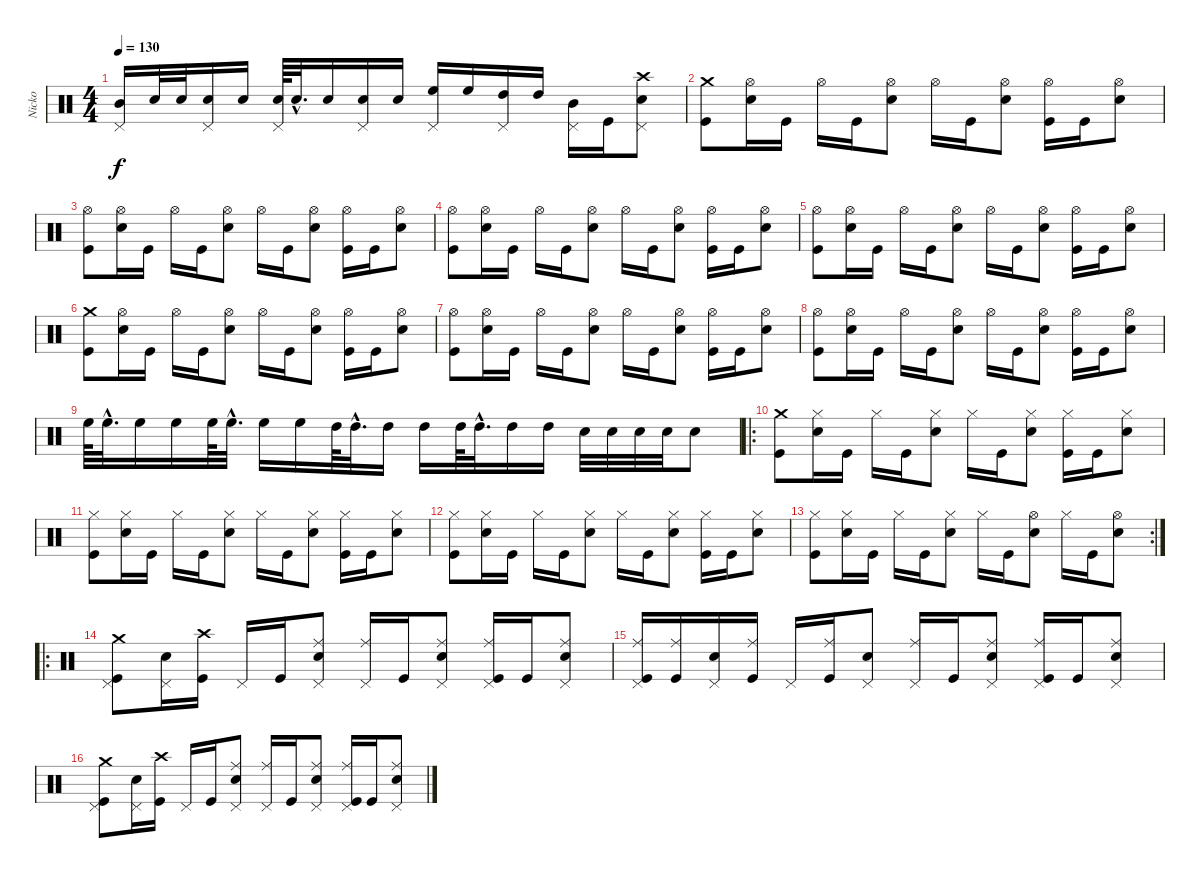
\track ("Nicko" "Nicko") {instrument percussion}
\staff {score}
\articulation defaults
\ts (4 4)
\tempo 130
\clef neutral
\ks c
("Mid Tom (hit)" "Pedal Hi-Hat (hit)").16{dy f} "Snare (hit) 2".32 "Snare (hit) 2".32 ("Snare (hit) 2" "Pedal Hi-Hat (hit)").16 "Snare (hit) 2".16 ("Snare (hit) 2" "Pedal Hi-Hat (hit)").64 "Snare (hit) 2"{hac}.32{d} "Snare (hit) 2".16 ("Snare (hit) 2" "Pedal Hi-Hat (hit)").16 "Snare (hit) 2".16 ("High Floor Tom (hit)" "Pedal Hi-Hat (hit)").16 "High Floor Tom (hit)".16 ("High Tom (hit)" "Pedal Hi-Hat (hit)").16 "High Tom (hit)".16 ("Mid Tom (hit)" "Pedal Hi-Hat (hit)").16 "Kick (hit)".16 ("Crash high (hit)" "Snare (hit) 2" "Pedal Hi-Hat (hit)").8 |
("Crash medium (hit)" "Kick (hit)").8 ("Hi-Hat (open)" "Snare (hit) 2").16 "Kick (hit)".16 "Hi-Hat (open)".16 "Kick (hit)".16 ("Hi-Hat (open)" "Snare (hit) 2").8 "Hi-Hat (open)".16 "Kick (hit)".16 ("Hi-Hat (open)" "Snare (hit) 2").8 ("Hi-Hat (open)" "Kick (hit)").16 "Kick (hit)".16 ("Hi-Hat (open)" "Snare (hit) 2").8 |
("Hi-Hat (open)" "Kick (hit)").8 ("Hi-Hat (open)" "Snare (hit) 2").16 "Kick (hit)".16 "Hi-Hat (open)".16 "Kick (hit)".16 ("Hi-Hat (open)" "Snare (hit) 2").8 "Hi-Hat (open)".16 "Kick (hit)".16 ("Hi-Hat (open)" "Snare (hit) 2").8 ("Hi-Hat (open)" "Kick (hit)").16 "Kick (hit)".16 ("Hi-Hat (open)" "Snare (hit) 2").8 |
("Hi-Hat (open)" "Kick (hit)").8 ("Hi-Hat (open)" "Snare (hit) 2").16 "Kick (hit)".16 "Hi-Hat (open)".16 "Kick (hit)".16 ("Hi-Hat (open)" "Snare (hit) 2").8 "Hi-Hat (open)".16 "Kick (hit)".16 ("Hi-Hat (open)" "Snare (hit) 2").8 ("Hi-Hat (open)" "Kick (hit)").16 "Kick (hit)".16 ("Hi-Hat (open)" "Snare (hit) 2").8 |
("Hi-Hat (open)" "Kick (hit)").8 ("Hi-Hat (open)" "Snare (hit) 2").16 "Kick (hit)".16 "Hi-Hat (open)".16 "Kick (hit)".16 ("Hi-Hat (open)" "Snare (hit) 2").8 "Hi-Hat (open)".16 "Kick (hit)".16 ("Hi-Hat (open)" "Snare (hit) 2").8 ("Hi-Hat (open)" "Kick (hit)").16 "Kick (hit)".16 ("Hi-Hat (open)" "Snare (hit) 2").8 |
("Crash medium (hit)" "Kick (hit)").8 ("Hi-Hat (open)" "Snare (hit) 2").16 "Kick (hit)".16 "Hi-Hat (open)".16 "Kick (hit)".16 ("Hi-Hat (open)" "Snare (hit) 2").8 "Hi-Hat (open)".16 "Kick (hit)".16 ("Hi-Hat (open)" "Snare (hit) 2").8 ("Hi-Hat (open)" "Kick (hit)").16 "Kick (hit)".16 ("Hi-Hat (open)" "Snare (hit) 2").8 |
("Hi-Hat (open)" "Kick (hit)").8 ("Hi-Hat (open)" "Snare (hit) 2").16 "Kick (hit)".16 "Hi-Hat (open)".16 "Kick (hit)".16 ("Hi-Hat (open)" "Snare (hit) 2").8 "Hi-Hat (open)".16 "Kick (hit)".16 ("Hi-Hat (open)" "Snare (hit) 2").8 ("Hi-Hat (open)" "Kick (hit)").16 "Kick (hit)".16 ("Hi-Hat (open)" "Snare (hit) 2").8 |
("Hi-Hat (open)" "Kick (hit)").8 ("Hi-Hat (open)" "Snare (hit) 2").16 "Kick (hit)".16 "Hi-Hat (open)".16 "Kick (hit)".16 ("Hi-Hat (open)" "Snare (hit) 2").8 "Hi-Hat (open)".16 "Kick (hit)".16 ("Hi-Hat (open)" "Snare (hit) 2").8 ("Hi-Hat (open)" "Kick (hit)").16 "Kick (hit)".16 ("Hi-Hat (open)" "Snare (hit) 2").8 |
"High Floor Tom (hit)".64 "High Floor Tom (hit)"{hac}.32{d} "High Floor Tom (hit)".16 "High Floor Tom (hit)".16 "High Floor Tom (hit)".64 "High Floor Tom (hit)"{hac}.32{d} "High Floor Tom (hit)".16 "High Floor Tom (hit)".16 "High Tom (hit)".64 "High Tom (hit)"{hac}.32{d} "High Tom (hit)".16 "High Tom (hit)".16 "High Tom (hit)".64 "High Tom (hit)"{hac}.32{d} "High Tom (hit)".16 "High Tom (hit)".16 "Snare (hit) 2".32 "Snare (hit) 2".32 "Snare (hit) 2".32 "Snare (hit) 2".32 "Snare (hit) 2".8 |
\ro
("Crash medium (hit)" "Kick (hit)").8 ("Hi-Hat (closed)" "Snare (hit) 2").16 "Kick (hit)".16 "Hi-Hat (closed)".16 "Kick (hit)".16 ("Hi-Hat (closed)" "Snare (hit) 2").8 "Hi-Hat (closed)".16 "Kick (hit)".16 ("Hi-Hat (closed)" "Snare (hit) 2").8 ("Hi-Hat (closed)" "Kick (hit)").16 "Kick (hit)".16 ("Hi-Hat (closed)" "Snare (hit) 2").8 |
("Hi-Hat (closed)" "Kick (hit)").8 ("Hi-Hat (closed)" "Snare (hit) 2").16 "Kick (hit)".16 "Hi-Hat (closed)".16 "Kick (hit)".16 ("Hi-Hat (closed)" "Snare (hit) 2").8 "Hi-Hat (closed)".16 "Kick (hit)".16 ("Hi-Hat (closed)" "Snare (hit) 2").8 ("Hi-Hat (closed)" "Kick (hit)").16 "Kick (hit)".16 ("Hi-Hat (closed)" "Snare (hit) 2").8 |
("Hi-Hat (closed)" "Kick (hit)").8 ("Hi-Hat (closed)" "Snare (hit) 2").16 "Kick (hit)".16 "Hi-Hat (closed)".16 "Kick (hit)".16 ("Hi-Hat (closed)" "Snare (hit) 2").8 "Hi-Hat (closed)".16 "Kick (hit)".16 ("Hi-Hat (closed)" "Snare (hit) 2").8 ("Hi-Hat (closed)" "Kick (hit)").16 "Kick (hit)".16 ("Hi-Hat (closed)" "Snare (hit) 2").8 |
\rc 2
("Hi-Hat (closed)" "Kick (hit)").8 ("Hi-Hat (closed)" "Snare (hit) 2").16 "Kick (hit)".16 "Hi-Hat (closed)".16 "Kick (hit)".16 ("Hi-Hat (closed)" "Snare (hit) 2").8 "Hi-Hat (closed)".16 "Kick (hit)".16 ("Hi-Hat (open)" "Snare (hit) 2").8 "Hi-Hat (closed)".16 "Kick (hit)".16 ("Hi-Hat (open)" "Snare (hit) 2").8 |
\ro
("Crash medium (hit)" "Pedal Hi-Hat (hit)" "Kick (hit)").8 ("Snare (hit) 2" "Pedal Hi-Hat (hit)").16 ("Crash high (hit)" "Kick (hit)").16 "Pedal Hi-Hat (hit)".16 "Kick (hit)".16 ("Ride (middle)" "Snare (hit) 2" "Pedal Hi-Hat (hit)").8 ("Ride (middle)" "Pedal Hi-Hat (hit)").16 "Kick (hit)".16 ("Ride (middle)" "Snare (hit) 2" "Pedal Hi-Hat (hit)").8 ("Ride (middle)" "Pedal Hi-Hat (hit)" "Kick (hit)").16 "Kick (hit)".16 ("Ride (middle)" "Snare (hit) 2" "Pedal Hi-Hat (hit)").8 |
("Ride (middle)" "Pedal Hi-Hat (hit)" "Kick (hit)").16 ("Ride (middle)" "Kick (hit)").16 ("Snare (hit) 2" "Pedal Hi-Hat (hit)").16 ("Ride (middle)" "Kick (hit)").16 "Pedal Hi-Hat (hit)".16 ("Ride (middle)" "Kick (hit)").16 ("Snare (hit) 2" "Pedal Hi-Hat (hit)").8 ("Ride (middle)" "Pedal Hi-Hat (hit)").16 "Kick (hit)".16 ("Ride (middle)" "Snare (hit) 2" "Pedal Hi-Hat (hit)").8 ("Ride (middle)" "Pedal Hi-Hat (hit)" "Kick (hit)").16 "Kick (hit)".16 ("Ride (middle)" "Snare (hit) 2" "Pedal Hi-Hat (hit)").8 |
("Crash medium (hit)" "Pedal Hi-Hat (hit)" "Kick (hit)").8 ("Snare (hit) 2" "Pedal Hi-Hat (hit)").16 ("Crash high (hit)" "Kick (hit)").16 "Pedal Hi-Hat (hit)".16 "Kick (hit)".16 ("Ride (middle)" "Snare (hit) 2" "Pedal Hi-Hat (hit)").8 ("Ride (middle)" "Pedal Hi-Hat (hit)").16 "Kick (hit)".16 ("Ride (middle)" "Snare (hit) 2" "Pedal Hi-Hat (hit)").8 ("Ride (middle)" "Pedal Hi-Hat (hit)" "Kick (hit)").16 "Kick (hit)".16 ("Ride (middle)" "Snare (hit) 2" "Pedal Hi-Hat (hit)").8
